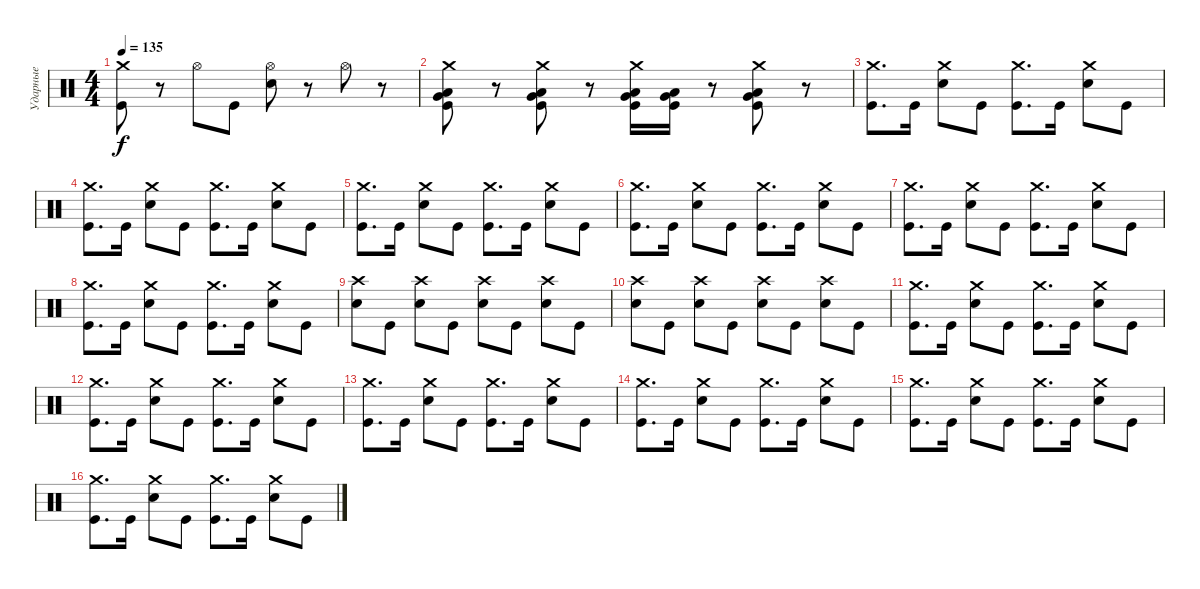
\track ("Ударные" "Ударные") {instrument percussion}
\staff {score}
\articulation defaults
\ts (4 4)
\tempo 135
\clef neutral
\ks c
("Crash medium (hit)" "Kick (hit)").8{dy f} r.8 "Hi-Hat (open)".8 "Kick (hit)".8 ("Hi-Hat (open)" "Electric Snare (hit)").8 r.8 "Hi-Hat (open)".8 r.8 |
("Crash medium (hit)" "Very Low Tom (hit)" "Low Floor Tom (hit)" "Kick (hit)").8 r.8 ("Crash medium (hit)" "Very Low Tom (hit)" "Low Floor Tom (hit)" "Kick (hit)").8 r.8 ("Crash medium (hit)" "Very Low Tom (hit)" "Low Floor Tom (hit)" "Kick (hit)").16 ("Very Low Tom (hit)" "Low Floor Tom (hit)" "Kick (hit)").16 r.8 ("Crash medium (hit)" "Very Low Tom (hit)" "Low Floor Tom (hit)" "Kick (hit)").8 r.8 |
("Crash medium (hit)" "Kick (hit)").8{d} "Kick (hit)".16 ("Crash medium (hit)" "Electric Snare (hit)").8 "Kick (hit)".8 ("Crash medium (hit)" "Kick (hit)").8{d} "Kick (hit)".16 ("Crash medium (hit)" "Electric Snare (hit)").8 "Kick (hit)".8 |
("Crash medium (hit)" "Kick (hit)").8{d} "Kick (hit)".16 ("Crash medium (hit)" "Electric Snare (hit)").8 "Kick (hit)".8 ("Crash medium (hit)" "Kick (hit)").8{d} "Kick (hit)".16 ("Crash medium (hit)" "Electric Snare (hit)").8 "Kick (hit)".8 |
("Crash medium (hit)" "Kick (hit)").8{d} "Kick (hit)".16 ("Crash medium (hit)" "Electric Snare (hit)").8 "Kick (hit)".8 ("Crash medium (hit)" "Kick (hit)").8{d} "Kick (hit)".16 ("Crash medium (hit)" "Electric Snare (hit)").8 "Kick (hit)".8 |
("Crash medium (hit)" "Kick (hit)").8{d} "Kick (hit)".16 ("Crash medium (hit)" "Electric Snare (hit)").8 "Kick (hit)".8 ("Crash medium (hit)" "Kick (hit)").8{d} "Kick (hit)".16 ("Crash medium (hit)" "Electric Snare (hit)").8 "Kick (hit)".8 |
("Crash medium (hit)" "Kick (hit)").8{d} "Kick (hit)".16 ("Crash medium (hit)" "Electric Snare (hit)").8 "Kick (hit)".8 ("Crash medium (hit)" "Kick (hit)").8{d} "Kick (hit)".16 ("Crash medium (hit)" "Electric Snare (hit)").8 "Kick (hit)".8 |
("Crash medium (hit)" "Kick (hit)").8{d} "Kick (hit)".16 ("Crash medium (hit)" "Electric Snare (hit)").8 "Kick (hit)".8 ("Crash medium (hit)" "Kick (hit)").8{d} "Kick (hit)".16 ("Crash medium (hit)" "Electric Snare (hit)").8 "Kick (hit)".8 |
("Crash high (hit)" "Electric Snare (hit)").8 "Kick (hit)".8 ("Crash high (hit)" "Electric Snare (hit)").8 "Kick (hit)".8 ("Crash high (hit)" "Electric Snare (hit)").8 "Kick (hit)".8 ("Crash high (hit)" "Electric Snare (hit)").8 "Kick (hit)".8 |
("Crash high (hit)" "Electric Snare (hit)").8 "Kick (hit)".8 ("Crash high (hit)" "Electric Snare (hit)").8 "Kick (hit)".8 ("Crash high (hit)" "Electric Snare (hit)").8 "Kick (hit)".8 ("Crash high (hit)" "Electric Snare (hit)").8 "Kick (hit)".8 |
("Crash medium (hit)" "Kick (hit)").8{d} "Kick (hit)".16 ("Crash medium (hit)" "Electric Snare (hit)").8 "Kick (hit)".8 ("Crash medium (hit)" "Kick (hit)").8{d} "Kick (hit)".16 ("Crash medium (hit)" "Electric Snare (hit)").8 "Kick (hit)".8 |
("Crash medium (hit)" "Kick (hit)").8{d} "Kick (hit)".16 ("Crash medium (hit)" "Electric Snare (hit)").8 "Kick (hit)".8 ("Crash medium (hit)" "Kick (hit)").8{d} "Kick (hit)".16 ("Crash medium (hit)" "Electric Snare (hit)").8 "Kick (hit)".8 |
("Crash medium (hit)" "Kick (hit)").8{d} "Kick (hit)".16 ("Crash medium (hit)" "Electric Snare (hit)").8 "Kick (hit)".8 ("Crash medium (hit)" "Kick (hit)").8{d} "Kick (hit)".16 ("Crash medium (hit)" "Electric Snare (hit)").8 "Kick (hit)".8 |
("Crash medium (hit)" "Kick (hit)").8{d} "Kick (hit)".16 ("Crash medium (hit)" "Electric Snare (hit)").8 "Kick (hit)".8 ("Crash medium (hit)" "Kick (hit)").8{d} "Kick (hit)".16 ("Crash medium (hit)" "Electric Snare (hit)").8 "Kick (hit)".8 |
("Crash medium (hit)" "Kick (hit)").8{d} "Kick (hit)".16 ("Crash medium (hit)" "Electric Snare (hit)").8 "Kick (hit)".8 ("Crash medium (hit)" "Kick (hit)").8{d} "Kick (hit)".16 ("Crash medium (hit)" "Electric Snare (hit)").8 "Kick (hit)".8 |
("Crash medium (hit)" "Kick (hit)").8{d} "Kick (hit)".16 ("Crash medium (hit)" "Electric Snare (hit)").8 "Kick (hit)".8 ("Crash medium (hit)" "Kick (hit)").8{d} "Kick (hit)".16 ("Crash medium (hit)" "Electric Snare (hit)").8 "Kick (hit)".8
